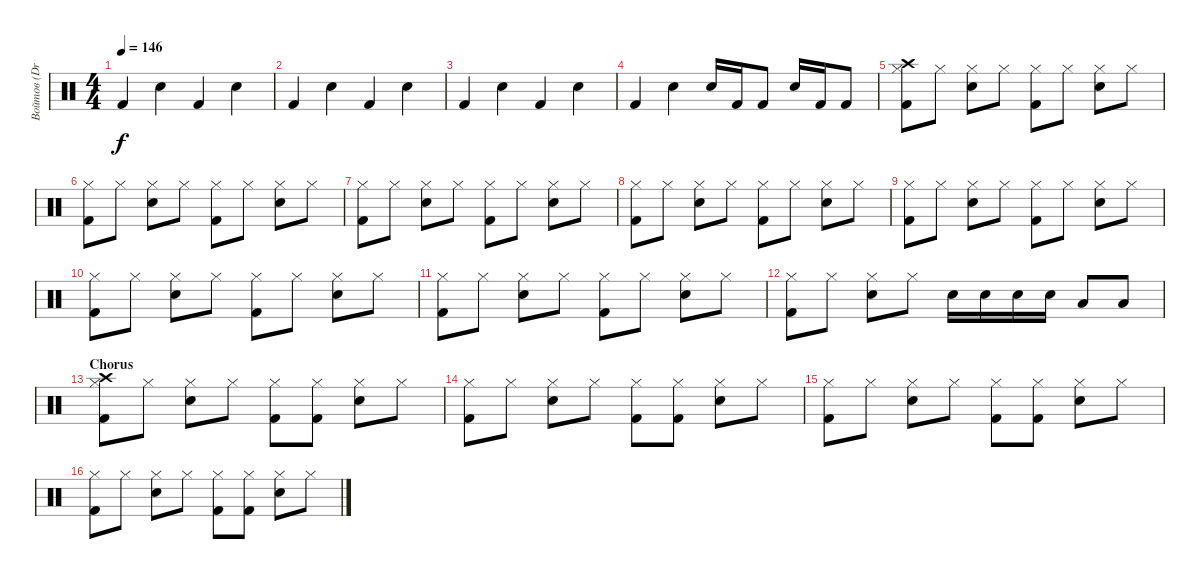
\track ("Войтов (Drums)" "Войтов (Dr") {instrument percussion}
\staff {score}
\articulation defaults
\ts (4 4)
\tempo 146
\clef neutral
\ks c "Kick (hit) 2".4{dy f} "Electric Snare (hit)".4 "Kick (hit) 2".4 "Electric Snare (hit)".4
|
"Kick (hit) 2".4 "Electric Snare (hit)".4 "Kick (hit) 2".4 "Electric Snare (hit)".4 |
"Kick (hit) 2".4 "Electric Snare (hit)".4 "Kick (hit) 2".4 "Electric Snare (hit)".4 |
"Kick (hit) 2".4 "Electric Snare (hit)".4 "Electric Snare (hit)".16 "Kick (hit) 2".16 "Kick (hit) 2".8 "Electric Snare (hit)".16 "Kick (hit) 2".16 "Kick (hit) 2".8 |
("Kick (hit) 2" "Hi-Hat (closed)" "Crash high (hit)").8 "Hi-Hat (closed)".8 ("Electric Snare (hit)" "Hi-Hat (closed)").8 "Hi-Hat (closed)".8 ("Kick (hit) 2" "Hi-Hat (closed)").8 "Hi-Hat (closed)".8 ("Electric Snare (hit)" "Hi-Hat (closed)").8 "Hi-Hat (closed)".8 |
("Kick (hit) 2" "Hi-Hat (closed)").8 "Hi-Hat (closed)".8 ("Electric Snare (hit)" "Hi-Hat (closed)").8 "Hi-Hat (closed)".8 ("Kick (hit) 2" "Hi-Hat (closed)").8 "Hi-Hat (closed)".8 ("Electric Snare (hit)" "Hi-Hat (closed)").8 "Hi-Hat (closed)".8 |
("Kick (hit) 2" "Hi-Hat (closed)").8 "Hi-Hat (closed)".8 ("Electric Snare (hit)" "Hi-Hat (closed)").8 "Hi-Hat (closed)".8 ("Kick (hit) 2" "Hi-Hat (closed)").8 "Hi-Hat (closed)".8 ("Electric Snare (hit)" "Hi-Hat (closed)").8 "Hi-Hat (closed)".8 |
("Kick (hit) 2" "Hi-Hat (closed)").8 "Hi-Hat (closed)".8 ("Electric Snare (hit)" "Hi-Hat (closed)").8 "Hi-Hat (closed)".8 ("Kick (hit) 2" "Hi-Hat (closed)").8 "Hi-Hat (closed)".8 ("Electric Snare (hit)" "Hi-Hat (closed)").8 "Hi-Hat (closed)".8 |
("Kick (hit) 2" "Hi-Hat (closed)").8 "Hi-Hat (closed)".8 ("Electric Snare (hit)" "Hi-Hat (closed)").8 "Hi-Hat (closed)".8 ("Kick (hit) 2" "Hi-Hat (closed)").8 "Hi-Hat (closed)".8 ("Electric Snare (hit)" "Hi-Hat (closed)").8 "Hi-Hat (closed)".8 |
("Kick (hit) 2" "Hi-Hat (closed)").8 "Hi-Hat (closed)".8 ("Electric Snare (hit)" "Hi-Hat (closed)").8 "Hi-Hat (closed)".8 ("Kick (hit) 2" "Hi-Hat (closed)").8 "Hi-Hat (closed)".8 ("Electric Snare (hit)" "Hi-Hat (closed)").8 "Hi-Hat (closed)".8 |
("Kick (hit) 2" "Hi-Hat (closed)").8 "Hi-Hat (closed)".8 ("Electric Snare (hit)" "Hi-Hat (closed)").8 "Hi-Hat (closed)".8 ("Kick (hit) 2" "Hi-Hat (closed)").8 "Hi-Hat (closed)".8 ("Electric Snare (hit)" "Hi-Hat (closed)").8 "Hi-Hat (closed)".8 |
("Kick (hit) 2" "Hi-Hat (closed)").8 "Hi-Hat (closed)".8 ("Electric Snare (hit)" "Hi-Hat (closed)").8 "Hi-Hat (closed)".8 "Electric Snare (hit)".16 "Electric Snare (hit)".16 "Electric Snare (hit)".16 "Electric Snare (hit)".16 "Low Tom (hit)".8 "Low Tom (hit)".8 |
\section ("" "Chorus")
("Kick (hit) 2" "Crash high (hit)" "Hi-Hat (closed)").8 "Hi-Hat (closed)".8 ("Electric Snare (hit)" "Hi-Hat (closed)").8 "Hi-Hat (closed)".8 ("Kick (hit) 2" "Hi-Hat (closed)").8 ("Kick (hit) 2" "Hi-Hat (closed)").8 ("Electric Snare (hit)" "Hi-Hat (closed)").8 "Hi-Hat (closed)".8 |
("Kick (hit) 2" "Hi-Hat (closed)").8 "Hi-Hat (closed)".8 ("Electric Snare (hit)" "Hi-Hat (closed)").8 "Hi-Hat (closed)".8 ("Kick (hit) 2" "Hi-Hat (closed)").8 ("Kick (hit) 2" "Hi-Hat (closed)").8 ("Electric Snare (hit)" "Hi-Hat (closed)").8 "Hi-Hat (closed)".8 |
("Kick (hit) 2" "Hi-Hat (closed)").8 "Hi-Hat (closed)".8 ("Electric Snare (hit)" "Hi-Hat (closed)").8 "Hi-Hat (closed)".8 ("Kick (hit) 2" "Hi-Hat (closed)").8 ("Kick (hit) 2" "Hi-Hat (closed)").8 ("Electric Snare (hit)" "Hi-Hat (closed)").8 "Hi-Hat (closed)".8 |
("Kick (hit) 2" "Hi-Hat (closed)").8 "Hi-Hat (closed)".8 ("Electric Snare (hit)" "Hi-Hat (closed)").8 "Hi-Hat (closed)".8 ("Kick (hit) 2" "Hi-Hat (closed)").8 ("Kick (hit) 2" "Hi-Hat (closed)").8 ("Electric Snare (hit)" "Hi-Hat (closed)").8 "Hi-Hat (closed)".8
